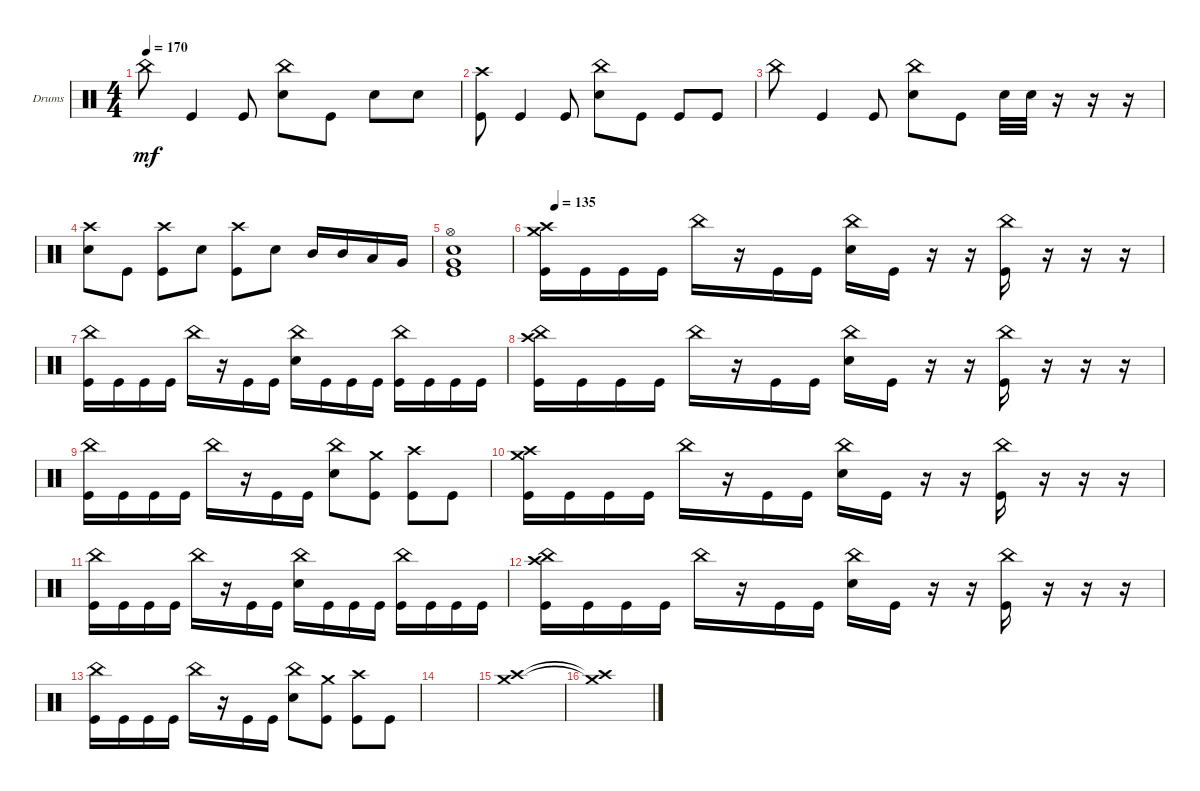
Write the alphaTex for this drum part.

\defaultSystemsLayout 4
\bracketExtendMode groupsimilarinstruments
\firstSystemTrackNameOrientation horizontal
\otherSystemsTrackNameOrientation horizontal
\track ("Drumkit" "Drums") {instrument percussion}
\staff {score}
\articulation defaults
\ts (4 4)
\tempo 170
\clef neutral
\ks c "China (hit)".8{dy mf} "Kick (hit)".4 "Kick (hit)".8
("Snare (hit) 2" "China (hit)").8 "Kick (hit)".8 "Snare (hit) 2".8 "Snare (hit) 2".8 |
("Kick (hit)" "Crash high (hit)").8 "Kick (hit)".4 "Kick (hit)".8 ("Snare (hit) 2" "China (hit)").8 "Kick (hit)".8 "Kick (hit)".8 "Kick (hit)".8 |
"China (hit)".8 "Kick (hit)".4 "Kick (hit)".8 ("Snare (hit) 2" "China (hit)").8 "Kick (hit)".8 "Snare (hit) 2".32 "Snare (hit) 2".32 r.16 r.16 r.16 |
("Snare (hit) 2" "Crash high (hit)").8 "Kick (hit)".8 ("Kick (hit)" "Crash high (hit)").8 "Snare (hit) 2".8 ("Kick (hit)" "Crash high (hit)").8 "Snare (hit) 2".8 "Mid Tom (hit)".16 "Mid Tom (hit)".16 "Low Tom (hit)".16 "Very Low Tom (hit)".16 |
("Hi-Hat (open)" "Snare (hit) 2" "Very Low Tom (hit)" "Kick (hit)").1 |
\tempo (135 0.025)
("Kick (hit)" "Crash high (hit)" "Crash medium (hit)").16 "Kick (hit)".16 "Kick (hit)".16 "Kick (hit)".16 "China (hit)".16 r.16 "Kick (hit)".16 "Kick (hit)".16 ("Snare (hit) 2" "China (hit)").16 "Kick (hit)".16 r.16 r.16 ("Kick (hit)" "China (hit)").16 r.16 r.16 r.16 |
("Kick (hit)" "China (hit)").16 "Kick (hit)".16 "Kick (hit)".16 "Kick (hit)".16 "China (hit)".16 r.16 "Kick (hit)".16 "Kick (hit)".16 ("Snare (hit) 2" "China (hit)").16 "Kick (hit)".16 "Kick (hit)".16 "Kick (hit)".16 ("Kick (hit)" "China (hit)").16 "Kick (hit)".16 "Kick (hit)".16 "Kick (hit)".16 |
("Kick (hit)" "China (hit)" "Crash high (hit)").16 "Kick (hit)".16 "Kick (hit)".16 "Kick (hit)".16 "China (hit)".16 r.16 "Kick (hit)".16 "Kick (hit)".16 ("Snare (hit) 2" "China (hit)").16 "Kick (hit)".16 r.16 r.16 ("Kick (hit)" "China (hit)").16 r.16 r.16 r.16 |
("Kick (hit)" "China (hit)").16 "Kick (hit)".16 "Kick (hit)".16 "Kick (hit)".16 "China (hit)".16 r.16 "Kick (hit)".16 "Kick (hit)".16 ("Snare (hit) 2" "China (hit)").8 ("Kick (hit)" "Crash medium (hit)").8 ("Kick (hit)" "Crash high (hit)").8 "Kick (hit)".8 |
("Kick (hit)" "Crash high (hit)" "Crash medium (hit)").16 "Kick (hit)".16 "Kick (hit)".16 "Kick (hit)".16 "China (hit)".16 r.16 "Kick (hit)".16 "Kick (hit)".16 ("Snare (hit) 2" "China (hit)").16 "Kick (hit)".16 r.16 r.16 ("Kick (hit)" "China (hit)").16 r.16 r.16 r.16 |
("Kick (hit)" "China (hit)").16 "Kick (hit)".16 "Kick (hit)".16 "Kick (hit)".16 "China (hit)".16 r.16 "Kick (hit)".16 "Kick (hit)".16 ("Snare (hit) 2" "China (hit)").16 "Kick (hit)".16 "Kick (hit)".16 "Kick (hit)".16 ("Kick (hit)" "China (hit)").16 "Kick (hit)".16 "Kick (hit)".16 "Kick (hit)".16 |
("Kick (hit)" "China (hit)" "Crash high (hit)").16 "Kick (hit)".16 "Kick (hit)".16 "Kick (hit)".16 "China (hit)".16 r.16 "Kick (hit)".16 "Kick (hit)".16 ("Snare (hit) 2" "China (hit)").16 "Kick (hit)".16 r.16 r.16 ("Kick (hit)" "China (hit)").16 r.16 r.16 r.16 |
("Kick (hit)" "China (hit)").16 "Kick (hit)".16 "Kick (hit)".16 "Kick (hit)".16 "China (hit)".16 r.16 "Kick (hit)".16 "Kick (hit)".16 ("Snare (hit) 2" "China (hit)").8 ("Kick (hit)" "Crash medium (hit)").8 ("Kick (hit)" "Crash high (hit)").8 "Kick (hit)".8 |
|
("Crash high (hit)" "Crash medium (hit)").1 |
("Crash high (hit)"{t} "Crash medium (hit)"{t}).1
